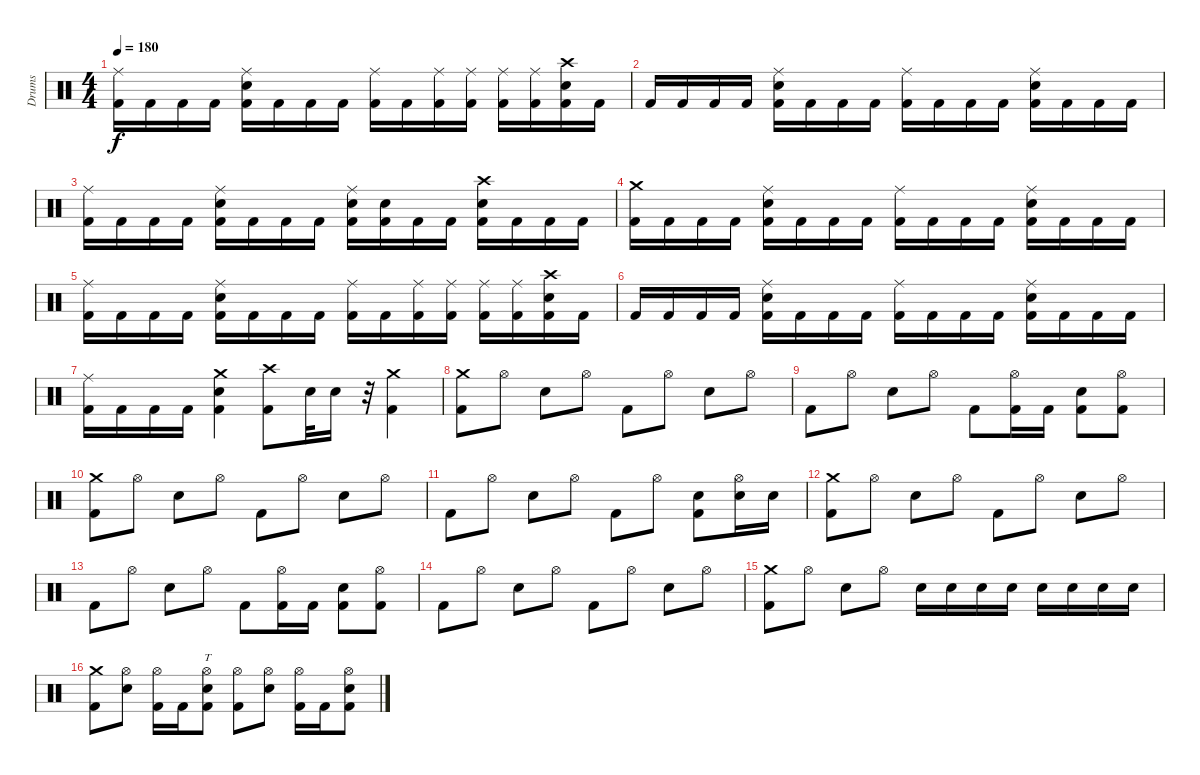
\track ("Drums" "Drums") {instrument percussion}
\staff {score}
\articulation defaults
\ts (4 4)
\tempo 180
\clef neutral
\ks c
("Ride (middle)" "Kick (hit) 2").16{dy f} "Kick (hit) 2".16 "Kick (hit) 2".16 "Kick (hit) 2".16 ("Ride (middle)" "Electric Snare (hit)" "Kick (hit) 2").16 "Kick (hit) 2".16 "Kick (hit) 2".16 "Kick (hit) 2".16 ("Ride (middle)" "Kick (hit) 2").16 "Kick (hit) 2".16 ("Ride (middle)" "Kick (hit) 2").16 ("Ride (middle)" "Kick (hit) 2").16 ("Ride (middle)" "Kick (hit) 2").16 ("Ride (middle)" "Kick (hit) 2").16 ("Crash high (hit)" "Electric Snare (hit)" "Kick (hit) 2").16 "Kick (hit) 2".16 |
"Kick (hit) 2".16 "Kick (hit) 2".16 "Kick (hit) 2".16 "Kick (hit) 2".16 ("Ride (middle)" "Electric Snare (hit)" "Kick (hit) 2").16 "Kick (hit) 2".16 "Kick (hit) 2".16 "Kick (hit) 2".16 ("Ride (middle)" "Kick (hit) 2").16 "Kick (hit) 2".16 "Kick (hit) 2".16 "Kick (hit) 2".16 ("Ride (middle)" "Electric Snare (hit)" "Kick (hit) 2").16 "Kick (hit) 2".16 "Kick (hit) 2".16 "Kick (hit) 2".16 |
("Ride (middle)" "Kick (hit) 2").16 "Kick (hit) 2".16 "Kick (hit) 2".16 "Kick (hit) 2".16 ("Ride (middle)" "Electric Snare (hit)" "Kick (hit) 2").16 "Kick (hit) 2".16 "Kick (hit) 2".16 "Kick (hit) 2".16 ("Ride (middle)" "Electric Snare (hit)" "Kick (hit) 2").16 ("Electric Snare (hit)" "Kick (hit) 2").16 "Kick (hit) 2".16 "Kick (hit) 2".16 ("Crash high (hit)" "Electric Snare (hit)" "Kick (hit) 2").16 "Kick (hit) 2".16 "Kick (hit) 2".16 "Kick (hit) 2".16 |
("Crash medium (hit)" "Kick (hit) 2").16 "Kick (hit) 2".16 "Kick (hit) 2".16 "Kick (hit) 2".16 ("Ride (middle)" "Electric Snare (hit)" "Kick (hit) 2").16 "Kick (hit) 2".16 "Kick (hit) 2".16 "Kick (hit) 2".16 ("Ride (middle)" "Kick (hit) 2").16 "Kick (hit) 2".16 "Kick (hit) 2".16 "Kick (hit) 2".16 ("Ride (middle)" "Electric Snare (hit)" "Kick (hit) 2").16 "Kick (hit) 2".16 "Kick (hit) 2".16 "Kick (hit) 2".16 |
("Ride (middle)" "Kick (hit) 2").16 "Kick (hit) 2".16 "Kick (hit) 2".16 "Kick (hit) 2".16 ("Ride (middle)" "Electric Snare (hit)" "Kick (hit) 2").16 "Kick (hit) 2".16 "Kick (hit) 2".16 "Kick (hit) 2".16 ("Ride (middle)" "Kick (hit) 2").16 "Kick (hit) 2".16 ("Ride (middle)" "Kick (hit) 2").16 ("Ride (middle)" "Kick (hit) 2").16 ("Ride (middle)" "Kick (hit) 2").16 ("Ride (middle)" "Kick (hit) 2").16 ("Crash high (hit)" "Electric Snare (hit)" "Kick (hit) 2").16 "Kick (hit) 2".16 |
"Kick (hit) 2".16 "Kick (hit) 2".16 "Kick (hit) 2".16 "Kick (hit) 2".16 ("Ride (middle)" "Electric Snare (hit)" "Kick (hit) 2").16 "Kick (hit) 2".16 "Kick (hit) 2".16 "Kick (hit) 2".16 ("Ride (middle)" "Kick (hit) 2").16 "Kick (hit) 2".16 "Kick (hit) 2".16 "Kick (hit) 2".16 ("Ride (middle)" "Electric Snare (hit)" "Kick (hit) 2").16 "Kick (hit) 2".16 "Kick (hit) 2".16 "Kick (hit) 2".16 |
("Ride (middle)" "Kick (hit) 2").16 "Kick (hit) 2".16 "Kick (hit) 2".16 "Kick (hit) 2".16 ("Crash medium (hit)" "Electric Snare (hit)" "Kick (hit) 2").4 ("Crash high (hit)" "Kick (hit) 2").8 "Electric Snare (hit)".32 "Electric Snare (hit)".16 r.32 ("Crash medium (hit)" "Kick (hit) 2").4 |
("Crash medium (hit)" "Kick (hit) 2").8 "Hi-Hat (open)".8 "Electric Snare (hit)".8 "Hi-Hat (open)".8 "Kick (hit) 2".8 "Hi-Hat (open)".8 "Electric Snare (hit)".8 "Hi-Hat (open)".8 |
"Kick (hit) 2".8 "Hi-Hat (open)".8 "Electric Snare (hit)".8 "Hi-Hat (open)".8 "Kick (hit) 2".8 ("Hi-Hat (open)" "Kick (hit) 2").16 "Kick (hit) 2".16 ("Electric Snare (hit)" "Kick (hit) 2").8 ("Hi-Hat (open)" "Kick (hit) 2").8 |
("Crash medium (hit)" "Kick (hit) 2").8 "Hi-Hat (open)".8 "Electric Snare (hit)".8 "Hi-Hat (open)".8 "Kick (hit) 2".8 "Hi-Hat (open)".8 "Electric Snare (hit)".8 "Hi-Hat (open)".8 |
"Kick (hit) 2".8 "Hi-Hat (open)".8 "Electric Snare (hit)".8 "Hi-Hat (open)".8 "Kick (hit) 2".8 "Hi-Hat (open)".8 ("Electric Snare (hit)" "Kick (hit) 2").8 ("Hi-Hat (open)" "Electric Snare (hit)").16 "Electric Snare (hit)".16 |
("Crash medium (hit)" "Kick (hit) 2").8 "Hi-Hat (open)".8 "Electric Snare (hit)".8 "Hi-Hat (open)".8 "Kick (hit) 2".8 "Hi-Hat (open)".8 "Electric Snare (hit)".8 "Hi-Hat (open)".8 |
"Kick (hit) 2".8 "Hi-Hat (open)".8 "Electric Snare (hit)".8 "Hi-Hat (open)".8 "Kick (hit) 2".8 ("Hi-Hat (open)" "Kick (hit) 2").16 "Kick (hit) 2".16 ("Electric Snare (hit)" "Kick (hit) 2").8 ("Hi-Hat (open)" "Kick (hit) 2").8 |
"Kick (hit) 2".8 "Hi-Hat (open)".8 "Electric Snare (hit)".8 "Hi-Hat (open)".8 "Kick (hit) 2".8 "Hi-Hat (open)".8 "Electric Snare (hit)".8 "Hi-Hat (open)".8 |
("Crash medium (hit)" "Kick (hit) 2").8 "Hi-Hat (open)".8 "Electric Snare (hit)".8 "Hi-Hat (open)".8 "Electric Snare (hit)".16 "Electric Snare (hit)".16 "Electric Snare (hit)".16 "Electric Snare (hit)".16 "Electric Snare (hit)".16 "Electric Snare (hit)".16 "Electric Snare (hit)".16 "Electric Snare (hit)".16 |
("Crash medium (hit)" "Kick (hit) 2").8 ("Hi-Hat (open)" "Electric Snare (hit)").8 ("Hi-Hat (open)" "Kick (hit) 2").16 "Kick (hit) 2".16 ("Hi-Hat (open)" "Electric Snare (hit)" "Kick (hit) 2").8{tt} ("Hi-Hat (open)" "Kick (hit) 2").8 ("Hi-Hat (open)" "Electric Snare (hit)").8 ("Hi-Hat (open)" "Kick (hit) 2").16 "Kick (hit) 2".16 ("Hi-Hat (open)" "Electric Snare (hit)" "Kick (hit) 2").8
